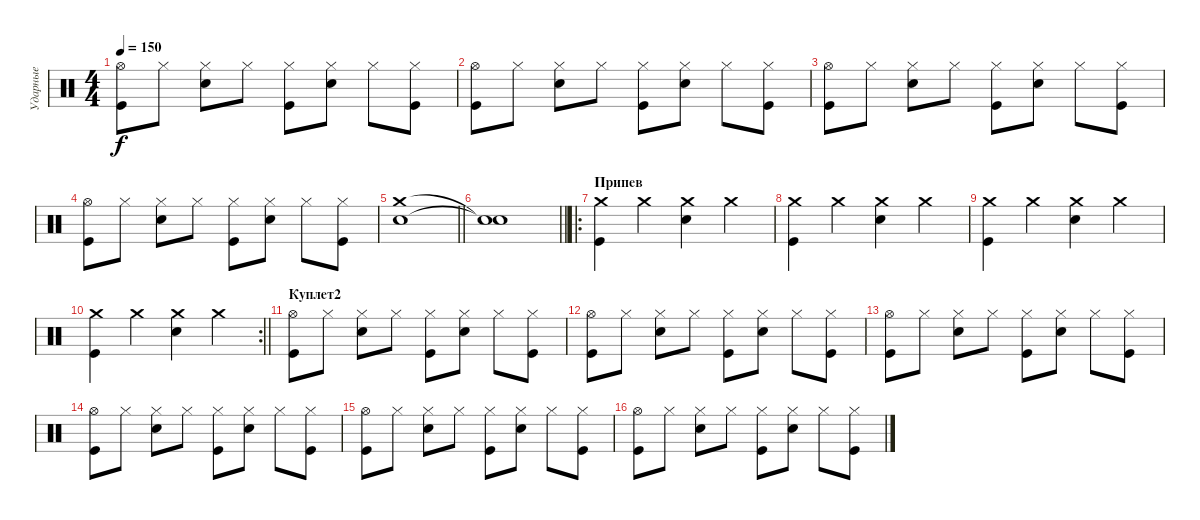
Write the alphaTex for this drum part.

\track ("Ударные" "Ударные") {instrument percussion}
\staff {score}
\articulation defaults
\ts (4 4)
\tempo 150
\clef neutral
\ks c
("Hi-Hat (open)" "Kick (hit)").8{dy f} "Hi-Hat (closed)".8 ("Hi-Hat (closed)" "Snare (hit) 2").8 "Hi-Hat (closed)".8 ("Hi-Hat (closed)" "Kick (hit)").8 ("Hi-Hat (closed)" "Snare (hit) 2").8 "Hi-Hat (closed)".8 ("Hi-Hat (closed)" "Kick (hit)").8 |
("Hi-Hat (open)" "Kick (hit)").8 "Hi-Hat (closed)".8 ("Hi-Hat (closed)" "Snare (hit) 2").8 "Hi-Hat (closed)".8 ("Hi-Hat (closed)" "Kick (hit)").8 ("Hi-Hat (closed)" "Snare (hit) 2").8 "Hi-Hat (closed)".8 ("Hi-Hat (closed)" "Kick (hit)").8 |
("Hi-Hat (open)" "Kick (hit)").8 "Hi-Hat (closed)".8 ("Hi-Hat (closed)" "Snare (hit) 2").8 "Hi-Hat (closed)".8 ("Hi-Hat (closed)" "Kick (hit)").8 ("Hi-Hat (closed)" "Snare (hit) 2").8 "Hi-Hat (closed)".8 ("Hi-Hat (closed)" "Kick (hit)").8 |
("Hi-Hat (open)" "Kick (hit)").8 "Hi-Hat (closed)".8 ("Hi-Hat (closed)" "Snare (hit) 2").8 "Hi-Hat (closed)".8 ("Hi-Hat (closed)" "Kick (hit)").8 ("Hi-Hat (closed)" "Snare (hit) 2").8 "Hi-Hat (closed)".8 ("Hi-Hat (closed)" "Kick (hit)").8 |
\barLineRight lightlight
("Snare (hit) 2" "Crash medium (hit)").1 |
\barLineRight lightlight
("Snare (hit)"{t} "Snare (hit)"{t}).1 |
\ro
\section ("" "Припев")
("Crash medium (hit)" "Kick (hit)").4 "Crash medium (hit)".4 ("Crash medium (hit)" "Snare (hit) 2").4 "Crash medium (hit)".4 |
("Crash medium (hit)" "Kick (hit)").4 "Crash medium (hit)".4 ("Crash medium (hit)" "Snare (hit) 2").4 "Crash medium (hit)".4 |
("Crash medium (hit)" "Kick (hit)").4 "Crash medium (hit)".4 ("Crash medium (hit)" "Snare (hit) 2").4 "Crash medium (hit)".4 |
\rc 2
\barLineRight lightlight
("Crash medium (hit)" "Kick (hit)").4 "Crash medium (hit)".4 ("Crash medium (hit)" "Snare (hit) 2").4 "Crash medium (hit)".4 |
\section ("" "Куплет2")
("Hi-Hat (open)" "Kick (hit)").8 "Hi-Hat (closed)".8 ("Hi-Hat (closed)" "Snare (hit) 2").8 "Hi-Hat (closed)".8 ("Hi-Hat (closed)" "Kick (hit)").8 ("Hi-Hat (closed)" "Snare (hit) 2").8 "Hi-Hat (closed)".8 ("Hi-Hat (closed)" "Kick (hit)").8 |
("Hi-Hat (open)" "Kick (hit)").8 "Hi-Hat (closed)".8 ("Hi-Hat (closed)" "Snare (hit) 2").8 "Hi-Hat (closed)".8 ("Hi-Hat (closed)" "Kick (hit)").8 ("Hi-Hat (closed)" "Snare (hit) 2").8 "Hi-Hat (closed)".8 ("Hi-Hat (closed)" "Kick (hit)").8 |
("Hi-Hat (open)" "Kick (hit)").8 "Hi-Hat (closed)".8 ("Hi-Hat (closed)" "Snare (hit) 2").8 "Hi-Hat (closed)".8 ("Hi-Hat (closed)" "Kick (hit)").8 ("Hi-Hat (closed)" "Snare (hit) 2").8 "Hi-Hat (closed)".8 ("Hi-Hat (closed)" "Kick (hit)").8 |
("Hi-Hat (open)" "Kick (hit)").8 "Hi-Hat (closed)".8 ("Hi-Hat (closed)" "Snare (hit) 2").8 "Hi-Hat (closed)".8 ("Hi-Hat (closed)" "Kick (hit)").8 ("Hi-Hat (closed)" "Snare (hit) 2").8 "Hi-Hat (closed)".8 ("Hi-Hat (closed)" "Kick (hit)").8 |
("Hi-Hat (open)" "Kick (hit)").8 "Hi-Hat (closed)".8 ("Hi-Hat (closed)" "Snare (hit) 2").8 "Hi-Hat (closed)".8 ("Hi-Hat (closed)" "Kick (hit)").8 ("Hi-Hat (closed)" "Snare (hit) 2").8 "Hi-Hat (closed)".8 ("Hi-Hat (closed)" "Kick (hit)").8 |
("Hi-Hat (open)" "Kick (hit)").8 "Hi-Hat (closed)".8 ("Hi-Hat (closed)" "Snare (hit) 2").8 "Hi-Hat (closed)".8 ("Hi-Hat (closed)" "Kick (hit)").8 ("Hi-Hat (closed)" "Snare (hit) 2").8 "Hi-Hat (closed)".8 ("Hi-Hat (closed)" "Kick (hit)").8
